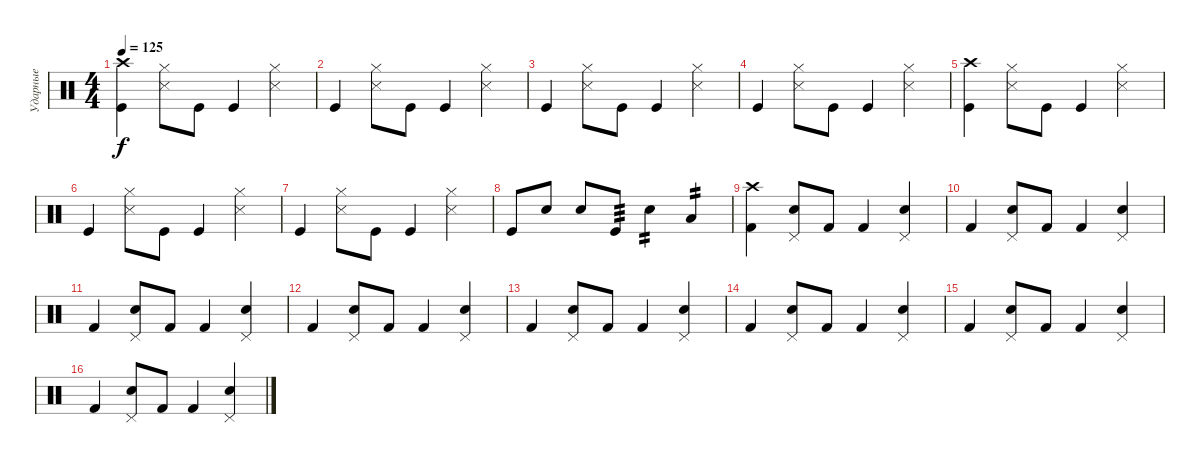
\track ("Ударные" "Ударные") {instrument percussion}
\staff {score}
\articulation defaults
\ts (4 4)
\tempo 125
\clef neutral
\ks c
("Crash high (hit)" "Kick (hit)").4{dy f volume 7} ("Hi-Hat (closed)" "Snare (side stick) 3").8 "Kick (hit)".8 "Kick (hit)".4 ("Hi-Hat (closed)" "Snare (side stick) 3").4 |
"Kick (hit)".4 ("Hi-Hat (closed)" "Snare (side stick) 3").8 "Kick (hit)".8 "Kick (hit)".4 ("Hi-Hat (closed)" "Snare (side stick) 3").4 |
"Kick (hit)".4{volume 7} ("Hi-Hat (closed)" "Snare (side stick) 3").8 "Kick (hit)".8 "Kick (hit)".4 ("Hi-Hat (closed)" "Snare (side stick) 3").4 |
"Kick (hit)".4 ("Hi-Hat (closed)" "Snare (side stick) 3").8 "Kick (hit)".8 "Kick (hit)".4 ("Hi-Hat (closed)" "Snare (side stick) 3").4 |
("Crash high (hit)" "Kick (hit)").4{volume 7} ("Hi-Hat (closed)" "Snare (side stick) 3").8 "Kick (hit)".8 "Kick (hit)".4 ("Hi-Hat (closed)" "Snare (side stick) 3").4 |
"Kick (hit)".4 ("Hi-Hat (closed)" "Snare (side stick) 3").8 "Kick (hit)".8 "Kick (hit)".4 ("Hi-Hat (closed)" "Snare (side stick) 3").4 |
"Kick (hit)".4{volume 7} ("Hi-Hat (closed)" "Snare (side stick) 3").8 "Kick (hit)".8 "Kick (hit)".4 ("Hi-Hat (closed)" "Snare (side stick) 3").4 |
"Kick (hit)".8{volume 11} "Snare (hit) 2".8 "Snare (hit) 2".8 "Kick (hit)".8{tp 3} "Electric Snare (hit)".4{tp 2} "Low Floor Tom (hit)".4{tp 2} |
("Crash high (hit)" "Kick (hit) 2").4 ("Snare (hit) 2" "Pedal Hi-Hat (hit)").8 "Kick (hit) 2".8 "Kick (hit) 2".4 ("Snare (hit) 2" "Pedal Hi-Hat (hit)").4 |
"Kick (hit) 2".4 ("Snare (hit) 2" "Pedal Hi-Hat (hit)").8 "Kick (hit) 2".8 "Kick (hit) 2".4 ("Snare (hit) 2" "Pedal Hi-Hat (hit)").4 |
"Kick (hit) 2".4 ("Snare (hit) 2" "Pedal Hi-Hat (hit)").8 "Kick (hit) 2".8 "Kick (hit) 2".4 ("Snare (hit) 2" "Pedal Hi-Hat (hit)").4 |
"Kick (hit) 2".4 ("Snare (hit) 2" "Pedal Hi-Hat (hit)").8 "Kick (hit) 2".8 "Kick (hit) 2".4 ("Snare (hit) 2" "Pedal Hi-Hat (hit)").4 |
"Kick (hit) 2".4 ("Snare (hit) 2" "Pedal Hi-Hat (hit)").8 "Kick (hit) 2".8 "Kick (hit) 2".4 ("Snare (hit) 2" "Pedal Hi-Hat (hit)").4 |
"Kick (hit) 2".4 ("Snare (hit) 2" "Pedal Hi-Hat (hit)").8 "Kick (hit) 2".8 "Kick (hit) 2".4 ("Snare (hit) 2" "Pedal Hi-Hat (hit)").4 |
"Kick (hit) 2".4 ("Snare (hit) 2" "Pedal Hi-Hat (hit)").8 "Kick (hit) 2".8 "Kick (hit) 2".4 ("Snare (hit) 2" "Pedal Hi-Hat (hit)").4 |
"Kick (hit) 2".4 ("Snare (hit) 2" "Pedal Hi-Hat (hit)").8 "Kick (hit) 2".8 "Kick (hit) 2".4 ("Snare (hit) 2" "Pedal Hi-Hat (hit)").4
